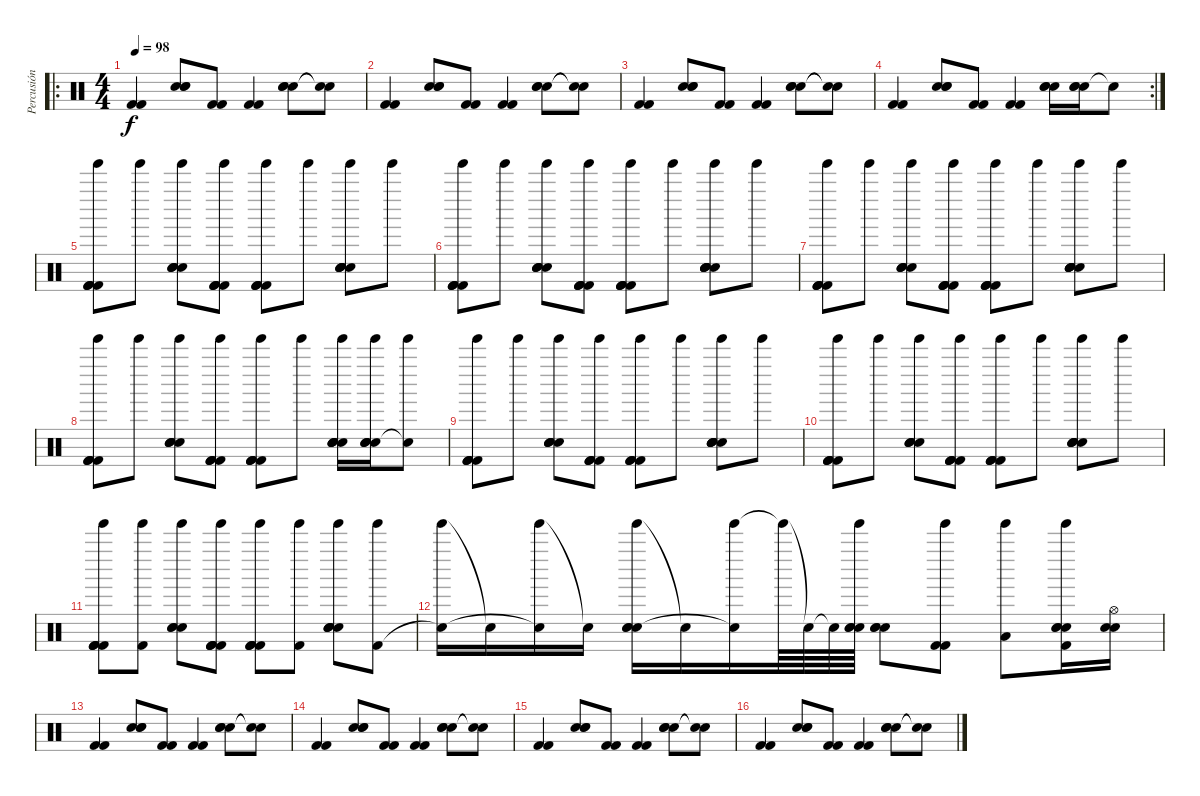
\track ("Percusión" "Percusión") {instrument percussion}
\staff {score}
\articulation defaults
\ro
\ts (4 4)
\tempo 98
\clef neutral
\ks c
("Kick (hit) 2" "Kick (hit) 2").4{dy f} ("Electric Snare (hit)" "Electric Snare (hit)" "Electric Snare (hit)").8 ("Kick (hit) 2" "Kick (hit) 2").8 ("Kick (hit) 2" "Kick (hit) 2").4 ("Electric Snare (hit)" "Electric Snare (hit)" "Electric Snare (hit)").8 ("Snare (hit)"{t} "Snare (hit)"{t}).8 |
("Kick (hit) 2" "Kick (hit) 2").4 ("Electric Snare (hit)" "Electric Snare (hit)" "Electric Snare (hit)").8 ("Kick (hit) 2" "Kick (hit) 2").8 ("Kick (hit) 2" "Kick (hit) 2").4 ("Electric Snare (hit)" "Electric Snare (hit)" "Electric Snare (hit)").8 ("Snare (hit)"{t} "Snare (hit)"{t}).8 |
("Kick (hit) 2" "Kick (hit) 2").4 ("Electric Snare (hit)" "Electric Snare (hit)" "Electric Snare (hit)").8 ("Kick (hit) 2" "Kick (hit) 2").8 ("Kick (hit) 2" "Kick (hit) 2").4 ("Electric Snare (hit)" "Electric Snare (hit)" "Electric Snare (hit)").8 ("Snare (hit)"{t} "Snare (hit)"{t}).8 |
\rc 2
("Kick (hit) 2" "Kick (hit) 2").4 ("Electric Snare (hit)" "Electric Snare (hit)" "Electric Snare (hit)").8 ("Kick (hit) 2" "Kick (hit) 2").8 ("Kick (hit) 2" "Kick (hit) 2").4 ("Electric Snare (hit)" "Electric Snare (hit)" "Electric Snare (hit)").16 ("Electric Snare (hit)" "Electric Snare (hit)" "Electric Snare (hit)").16 "Snare (hit)"{t}.8 |
("Tinkle Bell (hit)" "Kick (hit) 2" "Kick (hit) 2" "Kick (hit) 2" "Kick (hit) 2").8 "Tinkle Bell (hit)".8 ("Tinkle Bell (hit)" "Electric Snare (hit)" "Electric Snare (hit)" "Electric Snare (hit)" "Electric Snare (hit)").8 ("Tinkle Bell (hit)" "Kick (hit) 2" "Kick (hit) 2" "Kick (hit) 2" "Kick (hit) 2").8 ("Tinkle Bell (hit)" "Kick (hit) 2" "Kick (hit) 2" "Kick (hit) 2" "Kick (hit) 2").8 "Tinkle Bell (hit)".8 ("Tinkle Bell (hit)" "Electric Snare (hit)" "Electric Snare (hit)" "Electric Snare (hit)" "Electric Snare (hit)" "Hand Clap (hit)").8 "Tinkle Bell (hit)".8 |
("Tinkle Bell (hit)" "Kick (hit) 2" "Kick (hit) 2" "Kick (hit) 2" "Kick (hit) 2").8 "Tinkle Bell (hit)".8 ("Tinkle Bell (hit)" "Electric Snare (hit)" "Electric Snare (hit)" "Electric Snare (hit)" "Electric Snare (hit)").8 ("Tinkle Bell (hit)" "Kick (hit) 2" "Kick (hit) 2" "Kick (hit) 2" "Kick (hit) 2").8 ("Tinkle Bell (hit)" "Kick (hit) 2" "Kick (hit) 2" "Kick (hit) 2" "Kick (hit) 2").8 "Tinkle Bell (hit)".8 ("Tinkle Bell (hit)" "Electric Snare (hit)" "Electric Snare (hit)" "Electric Snare (hit)" "Electric Snare (hit)" "Hand Clap (hit)").8 "Tinkle Bell (hit)".8 |
("Tinkle Bell (hit)" "Kick (hit) 2" "Kick (hit) 2" "Kick (hit) 2" "Kick (hit) 2").8 "Tinkle Bell (hit)".8 ("Tinkle Bell (hit)" "Electric Snare (hit)" "Electric Snare (hit)" "Electric Snare (hit)" "Electric Snare (hit)").8 ("Tinkle Bell (hit)" "Kick (hit) 2" "Kick (hit) 2" "Kick (hit) 2" "Kick (hit) 2").8 ("Tinkle Bell (hit)" "Kick (hit) 2" "Kick (hit) 2" "Kick (hit) 2" "Kick (hit) 2").8 "Tinkle Bell (hit)".8 ("Tinkle Bell (hit)" "Electric Snare (hit)" "Electric Snare (hit)" "Electric Snare (hit)" "Electric Snare (hit)" "Hand Clap (hit)").8 "Tinkle Bell (hit)".8 |
("Tinkle Bell (hit)" "Kick (hit) 2" "Kick (hit) 2" "Kick (hit) 2" "Kick (hit) 2").8 "Tinkle Bell (hit)".8 ("Tinkle Bell (hit)" "Electric Snare (hit)" "Electric Snare (hit)" "Electric Snare (hit)" "Electric Snare (hit)").8 ("Tinkle Bell (hit)" "Kick (hit) 2" "Kick (hit) 2" "Kick (hit) 2" "Kick (hit) 2").8 ("Tinkle Bell (hit)" "Kick (hit) 2" "Kick (hit) 2" "Kick (hit) 2" "Kick (hit) 2").8 "Tinkle Bell (hit)".8 ("Tinkle Bell (hit)" "Electric Snare (hit)" "Electric Snare (hit)" "Electric Snare (hit)" "Electric Snare (hit)" "Hand Clap (hit)").16 ("Tinkle Bell (hit)" "Electric Snare (hit)" "Electric Snare (hit)" "Electric Snare (hit)" "Electric Snare (hit)").16 ("Tinkle Bell (hit)" "Snare (hit)"{t}).8 |
("Tinkle Bell (hit)" "Kick (hit) 2" "Kick (hit) 2" "Kick (hit) 2" "Kick (hit) 2").8 "Tinkle Bell (hit)".8 ("Tinkle Bell (hit)" "Electric Snare (hit)" "Electric Snare (hit)" "Electric Snare (hit)" "Electric Snare (hit)").8 ("Tinkle Bell (hit)" "Kick (hit) 2" "Kick (hit) 2" "Kick (hit) 2" "Kick (hit) 2").8 ("Tinkle Bell (hit)" "Kick (hit) 2" "Kick (hit) 2" "Kick (hit) 2" "Kick (hit) 2").8 "Tinkle Bell (hit)".8 ("Tinkle Bell (hit)" "Electric Snare (hit)" "Electric Snare (hit)" "Electric Snare (hit)" "Electric Snare (hit)" "Hand Clap (hit)").8 "Tinkle Bell (hit)".8 |
("Tinkle Bell (hit)" "Kick (hit) 2" "Kick (hit) 2" "Kick (hit) 2" "Kick (hit) 2").8 "Tinkle Bell (hit)".8 ("Tinkle Bell (hit)" "Electric Snare (hit)" "Electric Snare (hit)" "Electric Snare (hit)" "Electric Snare (hit)").8 ("Tinkle Bell (hit)" "Kick (hit) 2" "Kick (hit) 2" "Kick (hit) 2" "Kick (hit) 2").8 ("Tinkle Bell (hit)" "Kick (hit) 2" "Kick (hit) 2" "Kick (hit) 2" "Kick (hit) 2").8 "Tinkle Bell (hit)".8 ("Tinkle Bell (hit)" "Electric Snare (hit)" "Electric Snare (hit)" "Electric Snare (hit)" "Electric Snare (hit)" "Hand Clap (hit)").8 "Tinkle Bell (hit)".8 |
("Tinkle Bell (hit)" "Kick (hit) 2" "Kick (hit) 2" "Kick (hit) 2" "Kick (hit) 2").8 ("Tinkle Bell (hit)" "Kick (hit) 2").8 ("Tinkle Bell (hit)" "Electric Snare (hit)" "Electric Snare (hit)" "Electric Snare (hit)").8 ("Tinkle Bell (hit)" "Kick (hit) 2" "Kick (hit) 2" "Kick (hit) 2" "Kick (hit) 2").8 ("Tinkle Bell (hit)" "Kick (hit) 2" "Kick (hit) 2" "Kick (hit) 2" "Kick (hit) 2").8 ("Tinkle Bell (hit)" "Kick (hit) 2").8 ("Tinkle Bell (hit)" "Electric Snare (hit)" "Electric Snare (hit)" "Electric Snare (hit)" "Hand Clap (hit)").8 ("Tinkle Bell (hit)" "Kick (hit) 2").8 |
("Tinkle Bell (hit)" "Snare (hit)"{t}).16 "Snare (hit)"{t}.16 ("Tinkle Bell (hit)" "Snare (hit)"{t}).16 "Snare (hit)"{t}.16 ("Tinkle Bell (hit)" "Electric Snare (hit)" "Electric Snare (hit)" "Electric Snare (hit)").16 "Snare (hit)"{t}.16 ("Tinkle Bell (hit)" "Snare (hit)"{t}).16 "Tinkle Bell (hit)"{t}.64 "Snare (hit)"{t}.64 "Snare (hit)"{t}.64 ("Tinkle Bell (hit)" "Electric Snare (hit)" "Electric Snare (hit)" "Electric Snare (hit)").64 ("Electric Snare (hit)" "Electric Snare (hit)" "Electric Snare (hit)").8 ("Tinkle Bell (hit)" "Kick (hit) 2" "Kick (hit) 2").8 ("Tinkle Bell (hit)" "Low Floor Tom (hit)").8 ("Tinkle Bell (hit)" "Kick (hit) 2" "Electric Snare (hit)" "Electric Snare (hit)" "Electric Snare (hit)").16 ("Electric Snare (hit)" "Electric Snare (hit)" "Hi-Hat (open)").16 |
("Kick (hit) 2" "Kick (hit) 2").4 ("Electric Snare (hit)" "Electric Snare (hit)" "Electric Snare (hit)").8 ("Kick (hit) 2" "Kick (hit) 2").8 ("Kick (hit) 2" "Kick (hit) 2").4 ("Electric Snare (hit)" "Electric Snare (hit)" "Electric Snare (hit)").8 ("Snare (hit)"{t} "Snare (hit)"{t}).8 |
("Kick (hit) 2" "Kick (hit) 2").4 ("Electric Snare (hit)" "Electric Snare (hit)" "Electric Snare (hit)").8 ("Kick (hit) 2" "Kick (hit) 2").8 ("Kick (hit) 2" "Kick (hit) 2").4 ("Electric Snare (hit)" "Electric Snare (hit)" "Electric Snare (hit)").8 ("Snare (hit)"{t} "Snare (hit)"{t}).8 |
("Kick (hit) 2" "Kick (hit) 2").4 ("Electric Snare (hit)" "Electric Snare (hit)" "Electric Snare (hit)").8 ("Kick (hit) 2" "Kick (hit) 2").8 ("Kick (hit) 2" "Kick (hit) 2").4 ("Electric Snare (hit)" "Electric Snare (hit)" "Electric Snare (hit)").8 ("Snare (hit)"{t} "Snare (hit)"{t}).8 |
("Kick (hit) 2" "Kick (hit) 2").4 ("Electric Snare (hit)" "Electric Snare (hit)" "Electric Snare (hit)").8 ("Kick (hit) 2" "Kick (hit) 2").8 ("Kick (hit) 2" "Kick (hit) 2").4 ("Electric Snare (hit)" "Electric Snare (hit)" "Electric Snare (hit)").8 ("Snare (hit)"{t} "Snare (hit)"{t}).8
